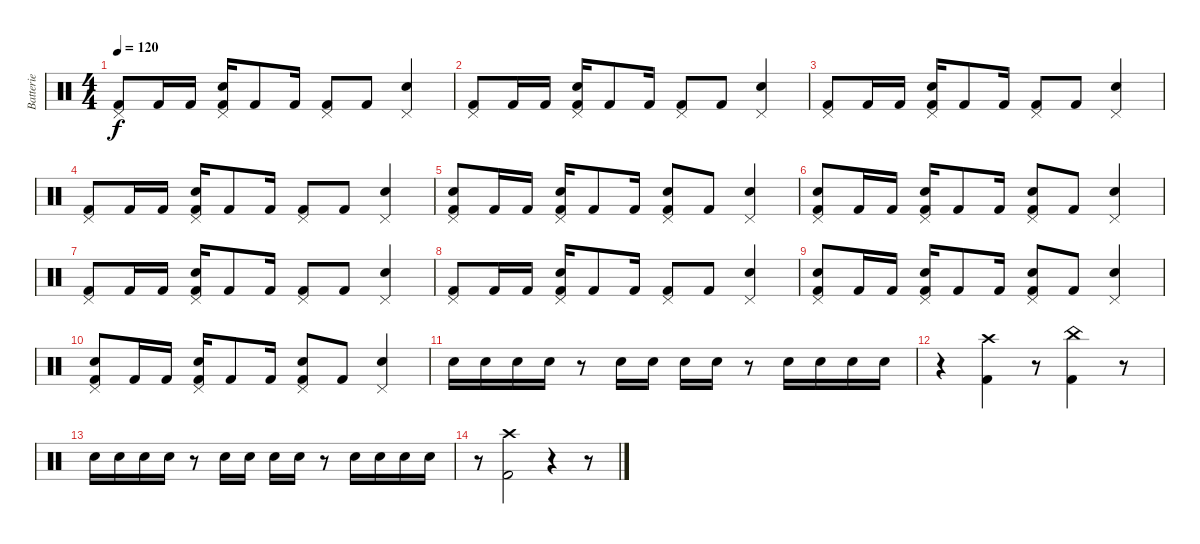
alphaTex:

\track ("Batterie" "Batterie") {instrument percussion}
\staff {score}
\articulation defaults
\ts (4 4)
\tempo 120
\clef neutral
\ks c
("Kick (hit) 2" "Pedal Hi-Hat (hit)").8{dy f} "Kick (hit) 2".16 "Kick (hit) 2".16 ("Snare (hit) 2" "Kick (hit) 2" "Pedal Hi-Hat (hit)").16 "Kick (hit) 2".8 "Kick (hit) 2".16 ("Kick (hit) 2" "Pedal Hi-Hat (hit)").8 "Kick (hit) 2".8 ("Snare (hit) 2" "Pedal Hi-Hat (hit)").4 |
("Kick (hit) 2" "Pedal Hi-Hat (hit)").8 "Kick (hit) 2".16 "Kick (hit) 2".16 ("Snare (hit) 2" "Kick (hit) 2" "Pedal Hi-Hat (hit)").16 "Kick (hit) 2".8 "Kick (hit) 2".16 ("Kick (hit) 2" "Pedal Hi-Hat (hit)").8 "Kick (hit) 2".8 ("Snare (hit) 2" "Pedal Hi-Hat (hit)").4 |
("Kick (hit) 2" "Pedal Hi-Hat (hit)").8 "Kick (hit) 2".16 "Kick (hit) 2".16 ("Snare (hit) 2" "Kick (hit) 2" "Pedal Hi-Hat (hit)").16 "Kick (hit) 2".8 "Kick (hit) 2".16 ("Kick (hit) 2" "Pedal Hi-Hat (hit)").8 "Kick (hit) 2".8 ("Snare (hit) 2" "Pedal Hi-Hat (hit)").4 |
("Kick (hit) 2" "Pedal Hi-Hat (hit)").8 "Kick (hit) 2".16 "Kick (hit) 2".16 ("Snare (hit) 2" "Kick (hit) 2" "Pedal Hi-Hat (hit)").16 "Kick (hit) 2".8 "Kick (hit) 2".16 ("Kick (hit) 2" "Pedal Hi-Hat (hit)").8 "Kick (hit) 2".8 ("Snare (hit) 2" "Pedal Hi-Hat (hit)").4 |
("Snare (hit) 2" "Kick (hit) 2" "Pedal Hi-Hat (hit)").8 "Kick (hit) 2".16 "Kick (hit) 2".16 ("Snare (hit) 2" "Kick (hit) 2" "Pedal Hi-Hat (hit)").16 "Kick (hit) 2".8 "Kick (hit) 2".16 ("Snare (hit) 2" "Kick (hit) 2" "Pedal Hi-Hat (hit)").8 "Kick (hit) 2".8 ("Snare (hit) 2" "Pedal Hi-Hat (hit)").4 |
("Snare (hit) 2" "Kick (hit) 2" "Pedal Hi-Hat (hit)").8 "Kick (hit) 2".16 "Kick (hit) 2".16 ("Snare (hit) 2" "Kick (hit) 2" "Pedal Hi-Hat (hit)").16 "Kick (hit) 2".8 "Kick (hit) 2".16 ("Snare (hit) 2" "Kick (hit) 2" "Pedal Hi-Hat (hit)").8 "Kick (hit) 2".8 ("Snare (hit) 2" "Pedal Hi-Hat (hit)").4 |
("Kick (hit) 2" "Pedal Hi-Hat (hit)").8 "Kick (hit) 2".16 "Kick (hit) 2".16 ("Snare (hit) 2" "Kick (hit) 2" "Pedal Hi-Hat (hit)").16 "Kick (hit) 2".8 "Kick (hit) 2".16 ("Kick (hit) 2" "Pedal Hi-Hat (hit)").8 "Kick (hit) 2".8 ("Snare (hit) 2" "Pedal Hi-Hat (hit)").4 |
("Kick (hit) 2" "Pedal Hi-Hat (hit)").8 "Kick (hit) 2".16 "Kick (hit) 2".16 ("Snare (hit) 2" "Kick (hit) 2" "Pedal Hi-Hat (hit)").16 "Kick (hit) 2".8 "Kick (hit) 2".16 ("Kick (hit) 2" "Pedal Hi-Hat (hit)").8 "Kick (hit) 2".8 ("Snare (hit) 2" "Pedal Hi-Hat (hit)").4 |
("Snare (hit) 2" "Kick (hit) 2" "Pedal Hi-Hat (hit)").8 "Kick (hit) 2".16 "Kick (hit) 2".16 ("Snare (hit) 2" "Kick (hit) 2" "Pedal Hi-Hat (hit)").16 "Kick (hit) 2".8 "Kick (hit) 2".16 ("Snare (hit) 2" "Kick (hit) 2" "Pedal Hi-Hat (hit)").8 "Kick (hit) 2".8 ("Snare (hit) 2" "Pedal Hi-Hat (hit)").4 |
("Snare (hit) 2" "Kick (hit) 2" "Pedal Hi-Hat (hit)").8 "Kick (hit) 2".16 "Kick (hit) 2".16 ("Snare (hit) 2" "Kick (hit) 2" "Pedal Hi-Hat (hit)").16 "Kick (hit) 2".8 "Kick (hit) 2".16 ("Snare (hit) 2" "Kick (hit) 2" "Pedal Hi-Hat (hit)").8 "Kick (hit) 2".8 ("Snare (hit) 2" "Pedal Hi-Hat (hit)").4 |
"Snare (hit) 2".16 "Snare (hit) 2".16 "Snare (hit) 2".16 "Snare (hit) 2".16 r.8 "Snare (hit) 2".16 "Snare (hit) 2".16 "Snare (hit) 2".16 "Snare (hit) 2".16 r.8 "Snare (hit) 2".16 "Snare (hit) 2".16 "Snare (hit) 2".16 "Snare (hit) 2".16 |
r.4 ("Crash high (hit)" "Kick (hit) 2").4 r.8 ("China (hit)" "Kick (hit) 2").4 r.8 |
"Snare (hit) 2".16 "Snare (hit) 2".16 "Snare (hit) 2".16 "Snare (hit) 2".16 r.8 "Snare (hit) 2".16 "Snare (hit) 2".16 "Snare (hit) 2".16 "Snare (hit) 2".16 r.8 "Snare (hit) 2".16 "Snare (hit) 2".16 "Snare (hit) 2".16 "Snare (hit) 2".16 |
r.8 ("Crash high (hit)" "Kick (hit) 2").2 r.4 r.8
